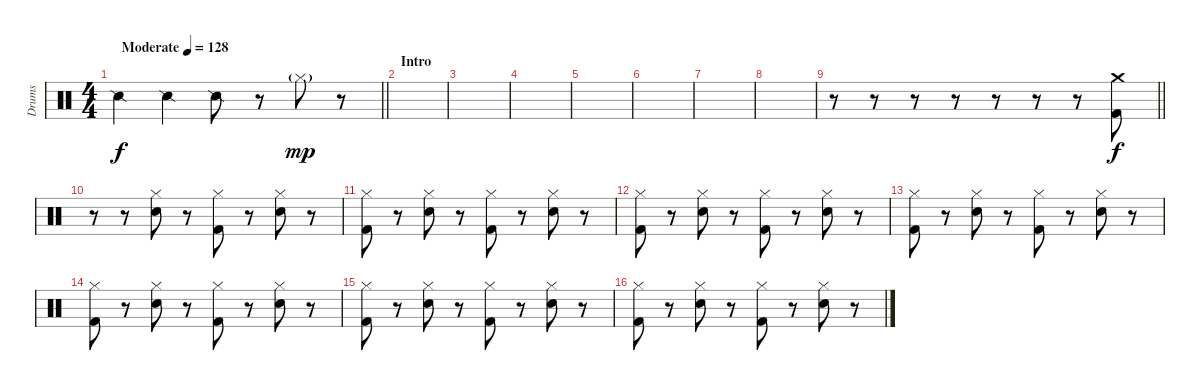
\track ("Drums" "Drums") {instrument percussion}
\staff {score}
\articulation defaults
\ts (4 4)
\tempo (128 "Moderate")
\clef neutral
\barLineRight lightlight
\ks c "Snare (side stick) 2".4{dy f} "Snare (side stick) 2".4 "Snare (side stick) 2".8
r.8 "Hi-Hat (closed)"{g}.8{dy mp} r.8 |
\section ("" "Intro")
|
|
|
|
|
|
|
\barLineRight lightlight
r.8 r.8 r.8 r.8 r.8 r.8 r.8 ("Crash medium (hit)" "Kick (hit) 2").8{dy f} |
r.8 r.8 ("Hi-Hat (closed)" "Snare (hit) 2").8 r.8 ("Hi-Hat (closed)" "Kick (hit) 2").8 r.8 ("Hi-Hat (closed)" "Snare (hit) 2").8 r.8 |
("Hi-Hat (closed)" "Kick (hit) 2").8 r.8 ("Hi-Hat (closed)" "Snare (hit) 2").8 r.8 ("Hi-Hat (closed)" "Kick (hit) 2").8 r.8 ("Hi-Hat (closed)" "Snare (hit) 2").8 r.8 |
("Hi-Hat (closed)" "Kick (hit) 2").8 r.8 ("Hi-Hat (closed)" "Snare (hit) 2").8 r.8 ("Hi-Hat (closed)" "Kick (hit) 2").8 r.8 ("Hi-Hat (closed)" "Snare (hit) 2").8 r.8 |
("Hi-Hat (closed)" "Kick (hit) 2").8 r.8 ("Hi-Hat (closed)" "Snare (hit) 2").8 r.8 ("Hi-Hat (closed)" "Kick (hit) 2").8 r.8 ("Hi-Hat (closed)" "Snare (hit) 2").8 r.8 |
("Hi-Hat (closed)" "Kick (hit) 2").8 r.8 ("Hi-Hat (closed)" "Snare (hit) 2").8 r.8 ("Hi-Hat (closed)" "Kick (hit) 2").8 r.8 ("Hi-Hat (closed)" "Snare (hit) 2").8 r.8 |
("Hi-Hat (closed)" "Kick (hit) 2").8 r.8 ("Hi-Hat (closed)" "Snare (hit) 2").8 r.8 ("Hi-Hat (closed)" "Kick (hit) 2").8 r.8 ("Hi-Hat (closed)" "Snare (hit) 2").8 r.8 |
("Hi-Hat (closed)" "Kick (hit) 2").8 r.8 ("Hi-Hat (closed)" "Snare (hit) 2").8 r.8 ("Hi-Hat (closed)" "Kick (hit) 2").8 r.8 ("Hi-Hat (closed)" "Snare (hit) 2").8 r.8
